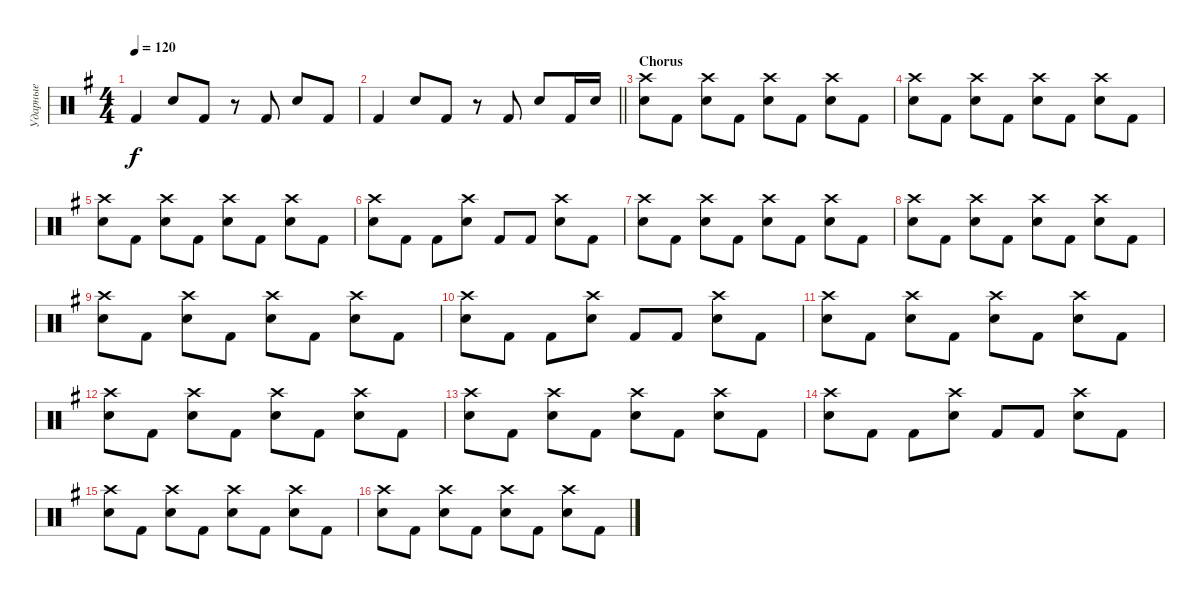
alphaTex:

\track ("Ударные" "Ударные") {instrument percussion}
\staff {score}
\articulation defaults
\ts (4 4)
\tempo 120
\clef neutral
\ks g "Kick (hit) 2".4{dy f} "Snare (hit) 2".8 "Kick (hit) 2".8
r.8 "Kick (hit) 2".8 "Snare (hit) 2".8 "Kick (hit) 2".8 |
\barLineRight lightlight "Kick (hit) 2".4 "Snare (hit) 2".8 "Kick (hit) 2".8
r.8 "Kick (hit) 2".8 "Snare (hit) 2".8 "Kick (hit) 2".16 "Snare (hit) 2".16 |
\section ("" "Chorus")
("Snare (hit) 2" "Crash high (hit)").8 "Kick (hit) 2".8 ("Snare (hit) 2" "Crash high (hit)").8 "Kick (hit) 2".8 ("Snare (hit) 2" "Crash high (hit)").8 "Kick (hit) 2".8 ("Snare (hit) 2" "Crash high (hit)").8 "Kick (hit) 2".8 |
("Snare (hit) 2" "Crash high (hit)").8 "Kick (hit) 2".8 ("Snare (hit) 2" "Crash high (hit)").8 "Kick (hit) 2".8 ("Snare (hit) 2" "Crash high (hit)").8 "Kick (hit) 2".8 ("Snare (hit) 2" "Crash high (hit)").8 "Kick (hit) 2".8 |
("Snare (hit) 2" "Crash high (hit)").8 "Kick (hit) 2".8 ("Snare (hit) 2" "Crash high (hit)").8 "Kick (hit) 2".8 ("Snare (hit) 2" "Crash high (hit)").8 "Kick (hit) 2".8 ("Snare (hit) 2" "Crash high (hit)").8 "Kick (hit) 2".8 |
("Snare (hit) 2" "Crash high (hit)").8 "Kick (hit) 2".8 "Kick (hit) 2".8 ("Snare (hit) 2" "Crash high (hit)").8 "Kick (hit) 2".8 "Kick (hit) 2".8 ("Snare (hit) 2" "Crash high (hit)").8 "Kick (hit) 2".8 |
("Snare (hit) 2" "Crash high (hit)").8 "Kick (hit) 2".8 ("Snare (hit) 2" "Crash high (hit)").8 "Kick (hit) 2".8 ("Snare (hit) 2" "Crash high (hit)").8 "Kick (hit) 2".8 ("Snare (hit) 2" "Crash high (hit)").8 "Kick (hit) 2".8 |
("Snare (hit) 2" "Crash high (hit)").8 "Kick (hit) 2".8 ("Snare (hit) 2" "Crash high (hit)").8 "Kick (hit) 2".8 ("Snare (hit) 2" "Crash high (hit)").8 "Kick (hit) 2".8 ("Snare (hit) 2" "Crash high (hit)").8 "Kick (hit) 2".8 |
("Snare (hit) 2" "Crash high (hit)").8 "Kick (hit) 2".8 ("Snare (hit) 2" "Crash high (hit)").8 "Kick (hit) 2".8 ("Snare (hit) 2" "Crash high (hit)").8 "Kick (hit) 2".8 ("Snare (hit) 2" "Crash high (hit)").8 "Kick (hit) 2".8 |
("Snare (hit) 2" "Crash high (hit)").8 "Kick (hit) 2".8 "Kick (hit) 2".8 ("Snare (hit) 2" "Crash high (hit)").8 "Kick (hit) 2".8 "Kick (hit) 2".8 ("Snare (hit) 2" "Crash high (hit)").8 "Kick (hit) 2".8 |
("Snare (hit) 2" "Crash high (hit)").8 "Kick (hit) 2".8 ("Snare (hit) 2" "Crash high (hit)").8 "Kick (hit) 2".8 ("Snare (hit) 2" "Crash high (hit)").8 "Kick (hit) 2".8 ("Snare (hit) 2" "Crash high (hit)").8 "Kick (hit) 2".8 |
("Snare (hit) 2" "Crash high (hit)").8 "Kick (hit) 2".8 ("Snare (hit) 2" "Crash high (hit)").8 "Kick (hit) 2".8 ("Snare (hit) 2" "Crash high (hit)").8 "Kick (hit) 2".8 ("Snare (hit) 2" "Crash high (hit)").8 "Kick (hit) 2".8 |
("Snare (hit) 2" "Crash high (hit)").8 "Kick (hit) 2".8 ("Snare (hit) 2" "Crash high (hit)").8 "Kick (hit) 2".8 ("Snare (hit) 2" "Crash high (hit)").8 "Kick (hit) 2".8 ("Snare (hit) 2" "Crash high (hit)").8 "Kick (hit) 2".8 |
("Snare (hit) 2" "Crash high (hit)").8 "Kick (hit) 2".8 "Kick (hit) 2".8 ("Snare (hit) 2" "Crash high (hit)").8 "Kick (hit) 2".8 "Kick (hit) 2".8 ("Snare (hit) 2" "Crash high (hit)").8 "Kick (hit) 2".8 |
("Snare (hit) 2" "Crash high (hit)").8 "Kick (hit) 2".8 ("Snare (hit) 2" "Crash high (hit)").8 "Kick (hit) 2".8 ("Snare (hit) 2" "Crash high (hit)").8 "Kick (hit) 2".8 ("Snare (hit) 2" "Crash high (hit)").8 "Kick (hit) 2".8 |
("Snare (hit) 2" "Crash high (hit)").8 "Kick (hit) 2".8 ("Snare (hit) 2" "Crash high (hit)").8 "Kick (hit) 2".8 ("Snare (hit) 2" "Crash high (hit)").8 "Kick (hit) 2".8 ("Snare (hit) 2" "Crash high (hit)").8 "Kick (hit) 2".8
